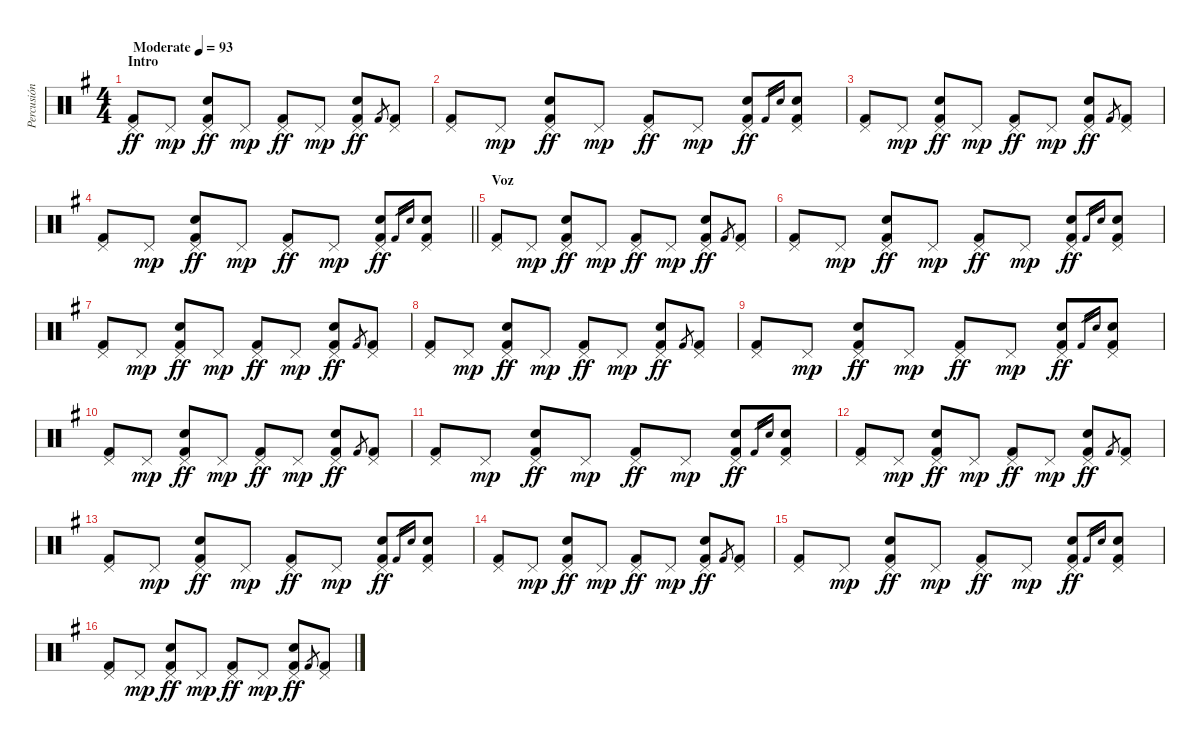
\track ("Percusión" "Percusión") {instrument percussion}
\staff {score}
\articulation defaults
\ts (4 4)
\section ("" "Intro")
\tempo (93 "Moderate")
\clef neutral
\ks eminor
("Pedal Hi-Hat (hit)" "Kick (hit) 2").8{dy ff} "Pedal Hi-Hat (hit)".8{dy mp} ("Pedal Hi-Hat (hit)" "Snare (hit) 2" "Kick (hit) 2").8{dy ff} "Pedal Hi-Hat (hit)".8{dy mp} ("Pedal Hi-Hat (hit)" "Kick (hit) 2").8{dy ff} "Pedal Hi-Hat (hit)".8{dy mp} ("Pedal Hi-Hat (hit)" "Snare (hit) 2" "Kick (hit) 2").8{dy ff} "Kick (hit) 2".8{gr} ("Pedal Hi-Hat (hit)" "Kick (hit) 2").8 |
("Pedal Hi-Hat (hit)" "Kick (hit) 2").8 "Pedal Hi-Hat (hit)".8{dy mp} ("Pedal Hi-Hat (hit)" "Snare (hit) 2" "Kick (hit) 2").8{dy ff} "Pedal Hi-Hat (hit)".8{dy mp} ("Pedal Hi-Hat (hit)" "Kick (hit) 2").8{dy ff} "Pedal Hi-Hat (hit)".8{dy mp} ("Pedal Hi-Hat (hit)" "Snare (hit) 2" "Kick (hit) 2").8{dy ff} "Kick (hit) 2".16{gr} "Snare (hit) 2".16{gr} ("Pedal Hi-Hat (hit)" "Kick (hit) 2" "Snare (hit) 2").8 |
("Pedal Hi-Hat (hit)" "Kick (hit) 2").8 "Pedal Hi-Hat (hit)".8{dy mp} ("Pedal Hi-Hat (hit)" "Snare (hit) 2" "Kick (hit) 2").8{dy ff} "Pedal Hi-Hat (hit)".8{dy mp} ("Pedal Hi-Hat (hit)" "Kick (hit) 2").8{dy ff} "Pedal Hi-Hat (hit)".8{dy mp} ("Pedal Hi-Hat (hit)" "Snare (hit) 2" "Kick (hit) 2").8{dy ff} "Kick (hit) 2".8{gr} ("Pedal Hi-Hat (hit)" "Kick (hit) 2").8 |
\barLineRight lightlight
("Pedal Hi-Hat (hit)" "Kick (hit) 2").8 "Pedal Hi-Hat (hit)".8{dy mp} ("Pedal Hi-Hat (hit)" "Snare (hit) 2" "Kick (hit) 2").8{dy ff} "Pedal Hi-Hat (hit)".8{dy mp} ("Pedal Hi-Hat (hit)" "Kick (hit) 2").8{dy ff} "Pedal Hi-Hat (hit)".8{dy mp} ("Pedal Hi-Hat (hit)" "Snare (hit) 2" "Kick (hit) 2").8{dy ff} "Kick (hit) 2".16{gr} "Snare (hit) 2".16{gr} ("Pedal Hi-Hat (hit)" "Kick (hit) 2" "Snare (hit) 2").8 |
\section ("" "Voz")
("Pedal Hi-Hat (hit)" "Kick (hit) 2").8 "Pedal Hi-Hat (hit)".8{dy mp} ("Pedal Hi-Hat (hit)" "Snare (hit) 2" "Kick (hit) 2").8{dy ff} "Pedal Hi-Hat (hit)".8{dy mp} ("Pedal Hi-Hat (hit)" "Kick (hit) 2").8{dy ff} "Pedal Hi-Hat (hit)".8{dy mp} ("Pedal Hi-Hat (hit)" "Snare (hit) 2" "Kick (hit) 2").8{dy ff} "Kick (hit) 2".8{gr} ("Pedal Hi-Hat (hit)" "Kick (hit) 2").8 |
("Pedal Hi-Hat (hit)" "Kick (hit) 2").8 "Pedal Hi-Hat (hit)".8{dy mp} ("Pedal Hi-Hat (hit)" "Snare (hit) 2" "Kick (hit) 2").8{dy ff} "Pedal Hi-Hat (hit)".8{dy mp} ("Pedal Hi-Hat (hit)" "Kick (hit) 2").8{dy ff} "Pedal Hi-Hat (hit)".8{dy mp} ("Pedal Hi-Hat (hit)" "Snare (hit) 2" "Kick (hit) 2").8{dy ff} "Kick (hit) 2".16{gr} "Snare (hit) 2".16{gr} ("Pedal Hi-Hat (hit)" "Kick (hit) 2" "Snare (hit) 2").8 |
("Pedal Hi-Hat (hit)" "Kick (hit) 2").8 "Pedal Hi-Hat (hit)".8{dy mp} ("Pedal Hi-Hat (hit)" "Snare (hit) 2" "Kick (hit) 2").8{dy ff} "Pedal Hi-Hat (hit)".8{dy mp} ("Pedal Hi-Hat (hit)" "Kick (hit) 2").8{dy ff} "Pedal Hi-Hat (hit)".8{dy mp} ("Pedal Hi-Hat (hit)" "Snare (hit) 2" "Kick (hit) 2").8{dy ff} "Kick (hit) 2".8{gr} ("Pedal Hi-Hat (hit)" "Kick (hit) 2").8 |
("Pedal Hi-Hat (hit)" "Kick (hit) 2").8 "Pedal Hi-Hat (hit)".8{dy mp} ("Pedal Hi-Hat (hit)" "Snare (hit) 2" "Kick (hit) 2").8{dy ff} "Pedal Hi-Hat (hit)".8{dy mp} ("Pedal Hi-Hat (hit)" "Kick (hit) 2").8{dy ff} "Pedal Hi-Hat (hit)".8{dy mp} ("Pedal Hi-Hat (hit)" "Snare (hit) 2" "Kick (hit) 2").8{dy ff} "Kick (hit) 2".8{gr} ("Pedal Hi-Hat (hit)" "Kick (hit) 2").8 |
("Pedal Hi-Hat (hit)" "Kick (hit) 2").8 "Pedal Hi-Hat (hit)".8{dy mp} ("Pedal Hi-Hat (hit)" "Snare (hit) 2" "Kick (hit) 2").8{dy ff} "Pedal Hi-Hat (hit)".8{dy mp} ("Pedal Hi-Hat (hit)" "Kick (hit) 2").8{dy ff} "Pedal Hi-Hat (hit)".8{dy mp} ("Pedal Hi-Hat (hit)" "Snare (hit) 2" "Kick (hit) 2").8{dy ff} "Kick (hit) 2".16{gr} "Snare (hit) 2".16{gr} ("Pedal Hi-Hat (hit)" "Kick (hit) 2" "Snare (hit) 2").8 |
("Pedal Hi-Hat (hit)" "Kick (hit) 2").8 "Pedal Hi-Hat (hit)".8{dy mp} ("Pedal Hi-Hat (hit)" "Snare (hit) 2" "Kick (hit) 2").8{dy ff} "Pedal Hi-Hat (hit)".8{dy mp} ("Pedal Hi-Hat (hit)" "Kick (hit) 2").8{dy ff} "Pedal Hi-Hat (hit)".8{dy mp} ("Pedal Hi-Hat (hit)" "Snare (hit) 2" "Kick (hit) 2").8{dy ff} "Kick (hit) 2".8{gr} ("Pedal Hi-Hat (hit)" "Kick (hit) 2").8 |
("Pedal Hi-Hat (hit)" "Kick (hit) 2").8 "Pedal Hi-Hat (hit)".8{dy mp} ("Pedal Hi-Hat (hit)" "Snare (hit) 2" "Kick (hit) 2").8{dy ff} "Pedal Hi-Hat (hit)".8{dy mp} ("Pedal Hi-Hat (hit)" "Kick (hit) 2").8{dy ff} "Pedal Hi-Hat (hit)".8{dy mp} ("Pedal Hi-Hat (hit)" "Snare (hit) 2" "Kick (hit) 2").8{dy ff} "Kick (hit) 2".16{gr} "Snare (hit) 2".16{gr} ("Pedal Hi-Hat (hit)" "Kick (hit) 2" "Snare (hit) 2").8 |
("Pedal Hi-Hat (hit)" "Kick (hit) 2").8 "Pedal Hi-Hat (hit)".8{dy mp} ("Pedal Hi-Hat (hit)" "Snare (hit) 2" "Kick (hit) 2").8{dy ff} "Pedal Hi-Hat (hit)".8{dy mp} ("Pedal Hi-Hat (hit)" "Kick (hit) 2").8{dy ff} "Pedal Hi-Hat (hit)".8{dy mp} ("Pedal Hi-Hat (hit)" "Snare (hit) 2" "Kick (hit) 2").8{dy ff} "Kick (hit) 2".8{gr} ("Pedal Hi-Hat (hit)" "Kick (hit) 2").8 |
("Pedal Hi-Hat (hit)" "Kick (hit) 2").8 "Pedal Hi-Hat (hit)".8{dy mp} ("Pedal Hi-Hat (hit)" "Snare (hit) 2" "Kick (hit) 2").8{dy ff} "Pedal Hi-Hat (hit)".8{dy mp} ("Pedal Hi-Hat (hit)" "Kick (hit) 2").8{dy ff} "Pedal Hi-Hat (hit)".8{dy mp} ("Pedal Hi-Hat (hit)" "Snare (hit) 2" "Kick (hit) 2").8{dy ff} "Kick (hit) 2".16{gr} "Snare (hit) 2".16{gr} ("Pedal Hi-Hat (hit)" "Kick (hit) 2" "Snare (hit) 2").8 |
("Pedal Hi-Hat (hit)" "Kick (hit) 2").8 "Pedal Hi-Hat (hit)".8{dy mp} ("Pedal Hi-Hat (hit)" "Snare (hit) 2" "Kick (hit) 2").8{dy ff} "Pedal Hi-Hat (hit)".8{dy mp} ("Pedal Hi-Hat (hit)" "Kick (hit) 2").8{dy ff} "Pedal Hi-Hat (hit)".8{dy mp} ("Pedal Hi-Hat (hit)" "Snare (hit) 2" "Kick (hit) 2").8{dy ff} "Kick (hit) 2".8{gr} ("Pedal Hi-Hat (hit)" "Kick (hit) 2").8 |
("Pedal Hi-Hat (hit)" "Kick (hit) 2").8 "Pedal Hi-Hat (hit)".8{dy mp} ("Pedal Hi-Hat (hit)" "Snare (hit) 2" "Kick (hit) 2").8{dy ff} "Pedal Hi-Hat (hit)".8{dy mp} ("Pedal Hi-Hat (hit)" "Kick (hit) 2").8{dy ff} "Pedal Hi-Hat (hit)".8{dy mp} ("Pedal Hi-Hat (hit)" "Snare (hit) 2" "Kick (hit) 2").8{dy ff} "Kick (hit) 2".16{gr} "Snare (hit) 2".16{gr} ("Pedal Hi-Hat (hit)" "Kick (hit) 2" "Snare (hit) 2").8 |
("Pedal Hi-Hat (hit)" "Kick (hit) 2").8 "Pedal Hi-Hat (hit)".8{dy mp} ("Pedal Hi-Hat (hit)" "Snare (hit) 2" "Kick (hit) 2").8{dy ff} "Pedal Hi-Hat (hit)".8{dy mp} ("Pedal Hi-Hat (hit)" "Kick (hit) 2").8{dy ff} "Pedal Hi-Hat (hit)".8{dy mp} ("Pedal Hi-Hat (hit)" "Snare (hit) 2" "Kick (hit) 2").8{dy ff} "Kick (hit) 2".8{gr} ("Pedal Hi-Hat (hit)" "Kick (hit) 2").8
